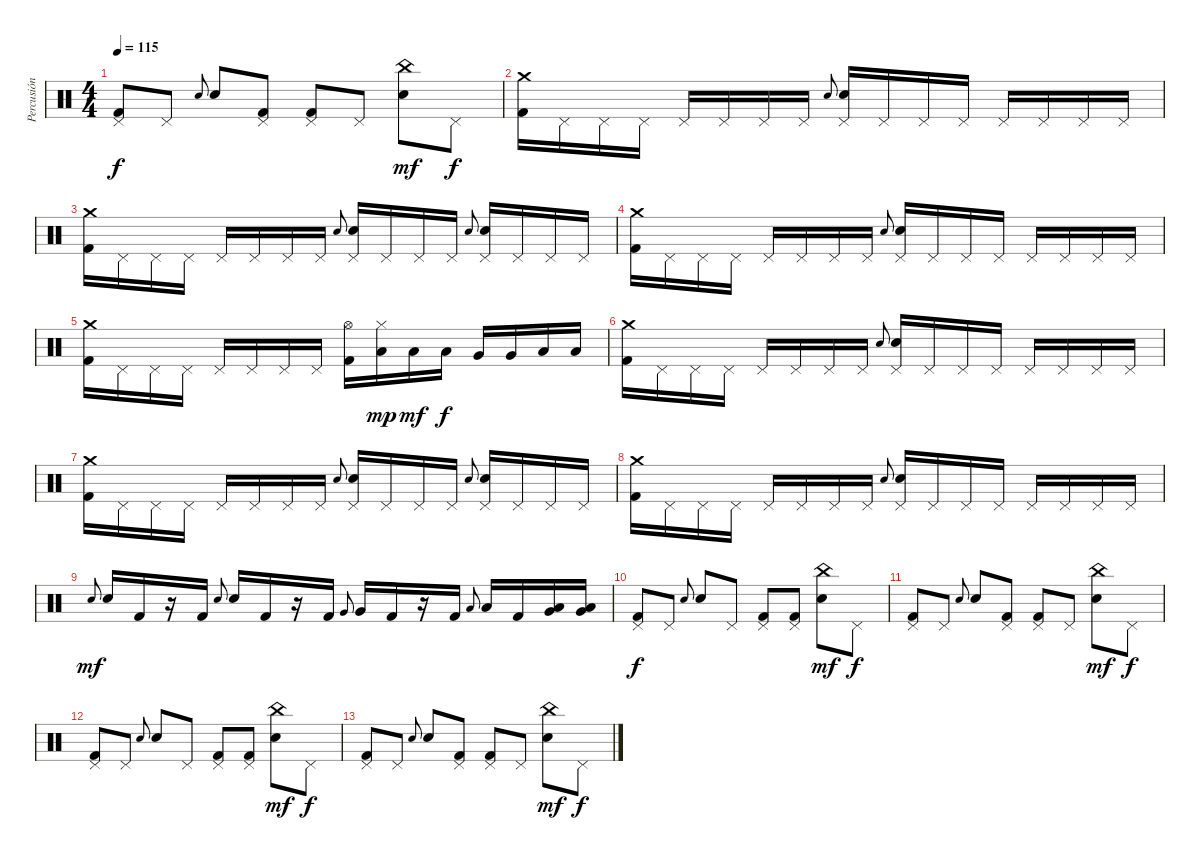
\track ("Percusión" "Percusión") {instrument percussion}
\staff {score}
\articulation defaults
\ts (4 4)
\tempo 115
\clef neutral
\ks c
("Pedal Hi-Hat (hit)" "Kick (hit) 2").8{dy f} "Pedal Hi-Hat (hit)".8 "Electric Snare (hit)".8{gr onbeat} "Electric Snare (hit)".8 ("Pedal Hi-Hat (hit)" "Kick (hit) 2").8 ("Pedal Hi-Hat (hit)" "Kick (hit) 2").8 "Pedal Hi-Hat (hit)".8 ("China (hit)" "Electric Snare (hit)").8{dy mf} "Pedal Hi-Hat (hit)".8{dy f} |
("Crash medium (hit)" "Kick (hit) 2").16 "Pedal Hi-Hat (hit)".16 "Pedal Hi-Hat (hit)".16 "Pedal Hi-Hat (hit)".16 "Pedal Hi-Hat (hit)".16 "Pedal Hi-Hat (hit)".16 "Pedal Hi-Hat (hit)".16 "Pedal Hi-Hat (hit)".16 "Electric Snare (hit)".8{gr onbeat} ("Pedal Hi-Hat (hit)" "Electric Snare (hit)").16 "Pedal Hi-Hat (hit)".16 "Pedal Hi-Hat (hit)".16 "Pedal Hi-Hat (hit)".16 "Pedal Hi-Hat (hit)".16 "Pedal Hi-Hat (hit)".16 "Pedal Hi-Hat (hit)".16 "Pedal Hi-Hat (hit)".16 |
("Crash medium (hit)" "Kick (hit) 2").16 "Pedal Hi-Hat (hit)".16 "Pedal Hi-Hat (hit)".16 "Pedal Hi-Hat (hit)".16 "Pedal Hi-Hat (hit)".16 "Pedal Hi-Hat (hit)".16 "Pedal Hi-Hat (hit)".16 "Pedal Hi-Hat (hit)".16 "Electric Snare (hit)".8{gr onbeat} ("Pedal Hi-Hat (hit)" "Electric Snare (hit)").16 "Pedal Hi-Hat (hit)".16 "Pedal Hi-Hat (hit)".16 "Pedal Hi-Hat (hit)".16 "Electric Snare (hit)".8{gr onbeat} ("Pedal Hi-Hat (hit)" "Electric Snare (hit)").16 "Pedal Hi-Hat (hit)".16 "Pedal Hi-Hat (hit)".16 "Pedal Hi-Hat (hit)".16 |
("Crash medium (hit)" "Kick (hit) 2").16 "Pedal Hi-Hat (hit)".16 "Pedal Hi-Hat (hit)".16 "Pedal Hi-Hat (hit)".16 "Pedal Hi-Hat (hit)".16 "Pedal Hi-Hat (hit)".16 "Pedal Hi-Hat (hit)".16 "Pedal Hi-Hat (hit)".16 "Electric Snare (hit)".8{gr onbeat} ("Pedal Hi-Hat (hit)" "Electric Snare (hit)").16 "Pedal Hi-Hat (hit)".16 "Pedal Hi-Hat (hit)".16 "Pedal Hi-Hat (hit)".16 "Pedal Hi-Hat (hit)".16 "Pedal Hi-Hat (hit)".16 "Pedal Hi-Hat (hit)".16 "Pedal Hi-Hat (hit)".16 |
("Crash medium (hit)" "Kick (hit) 2").16 "Pedal Hi-Hat (hit)".16 "Pedal Hi-Hat (hit)".16 "Pedal Hi-Hat (hit)".16 "Pedal Hi-Hat (hit)".16 "Pedal Hi-Hat (hit)".16 "Pedal Hi-Hat (hit)".16 "Pedal Hi-Hat (hit)".16 ("Hi-Hat (open)" "Kick (hit) 2").16 ("Hi-Hat (closed)" "Low Tom (hit)").16{dy mp} "Low Tom (hit)".16{dy mf} "Low Tom (hit)".16{dy f} "Very Low Tom (hit)".16 "Very Low Tom (hit)".16 "Low Floor Tom (hit)".16 "Low Floor Tom (hit)".16 |
("Crash medium (hit)" "Kick (hit) 2").16 "Pedal Hi-Hat (hit)".16 "Pedal Hi-Hat (hit)".16 "Pedal Hi-Hat (hit)".16 "Pedal Hi-Hat (hit)".16 "Pedal Hi-Hat (hit)".16 "Pedal Hi-Hat (hit)".16 "Pedal Hi-Hat (hit)".16 "Electric Snare (hit)".8{gr onbeat} ("Pedal Hi-Hat (hit)" "Electric Snare (hit)").16 "Pedal Hi-Hat (hit)".16 "Pedal Hi-Hat (hit)".16 "Pedal Hi-Hat (hit)".16 "Pedal Hi-Hat (hit)".16 "Pedal Hi-Hat (hit)".16 "Pedal Hi-Hat (hit)".16 "Pedal Hi-Hat (hit)".16 |
("Crash medium (hit)" "Kick (hit) 2").16 "Pedal Hi-Hat (hit)".16 "Pedal Hi-Hat (hit)".16 "Pedal Hi-Hat (hit)".16 "Pedal Hi-Hat (hit)".16 "Pedal Hi-Hat (hit)".16 "Pedal Hi-Hat (hit)".16 "Pedal Hi-Hat (hit)".16 "Electric Snare (hit)".8{gr onbeat} ("Pedal Hi-Hat (hit)" "Electric Snare (hit)").16 "Pedal Hi-Hat (hit)".16 "Pedal Hi-Hat (hit)".16 "Pedal Hi-Hat (hit)".16 "Electric Snare (hit)".8{gr onbeat} ("Pedal Hi-Hat (hit)" "Electric Snare (hit)").16 "Pedal Hi-Hat (hit)".16 "Pedal Hi-Hat (hit)".16 "Pedal Hi-Hat (hit)".16 |
("Crash medium (hit)" "Kick (hit) 2").16 "Pedal Hi-Hat (hit)".16 "Pedal Hi-Hat (hit)".16 "Pedal Hi-Hat (hit)".16 "Pedal Hi-Hat (hit)".16 "Pedal Hi-Hat (hit)".16 "Pedal Hi-Hat (hit)".16 "Pedal Hi-Hat (hit)".16 "Electric Snare (hit)".8{gr onbeat} ("Pedal Hi-Hat (hit)" "Electric Snare (hit)").16 "Pedal Hi-Hat (hit)".16 "Pedal Hi-Hat (hit)".16 "Pedal Hi-Hat (hit)".16 "Pedal Hi-Hat (hit)".16 "Pedal Hi-Hat (hit)".16 "Pedal Hi-Hat (hit)".16 "Pedal Hi-Hat (hit)".16 |
"Electric Snare (hit)".8{gr onbeat dy mf} "Electric Snare (hit)".16 "Kick (hit) 2".16 r.16 "Kick (hit) 2".16 "Electric Snare (hit)".8{gr onbeat} "Electric Snare (hit)".16 "Kick (hit) 2".16 r.16 "Kick (hit) 2".16 "Very Low Tom (hit)".8{gr onbeat} "Very Low Tom (hit)".16 "Kick (hit) 2".16 r.16 "Kick (hit) 2".16 "Low Floor Tom (hit)".8{gr onbeat} "Low Floor Tom (hit)".16 "Kick (hit) 2".16 ("Very Low Tom (hit)" "Low Floor Tom (hit)").16 ("Very Low Tom (hit)" "Low Floor Tom (hit)").16 |
("Pedal Hi-Hat (hit)" "Kick (hit) 2").8{dy f} "Pedal Hi-Hat (hit)".8 "Electric Snare (hit)".8{gr onbeat} "Electric Snare (hit)".8 "Pedal Hi-Hat (hit)".8 ("Pedal Hi-Hat (hit)" "Kick (hit) 2").8 ("Pedal Hi-Hat (hit)" "Kick (hit) 2").8 ("China (hit)" "Electric Snare (hit)").8{dy mf} "Pedal Hi-Hat (hit)".8{dy f} |
("Pedal Hi-Hat (hit)" "Kick (hit) 2").8 "Pedal Hi-Hat (hit)".8 "Electric Snare (hit)".8{gr onbeat} "Electric Snare (hit)".8 ("Pedal Hi-Hat (hit)" "Kick (hit) 2").8 ("Pedal Hi-Hat (hit)" "Kick (hit) 2").8 "Pedal Hi-Hat (hit)".8 ("China (hit)" "Electric Snare (hit)").8{dy mf} "Pedal Hi-Hat (hit)".8{dy f} |
("Pedal Hi-Hat (hit)" "Kick (hit) 2").8 "Pedal Hi-Hat (hit)".8 "Electric Snare (hit)".8{gr onbeat} "Electric Snare (hit)".8 "Pedal Hi-Hat (hit)".8 ("Pedal Hi-Hat (hit)" "Kick (hit) 2").8 ("Pedal Hi-Hat (hit)" "Kick (hit) 2").8 ("China (hit)" "Electric Snare (hit)").8{dy mf} "Pedal Hi-Hat (hit)".8{dy f} |
("Pedal Hi-Hat (hit)" "Kick (hit) 2").8 "Pedal Hi-Hat (hit)".8 "Electric Snare (hit)".8{gr onbeat} "Electric Snare (hit)".8 ("Pedal Hi-Hat (hit)" "Kick (hit) 2").8 ("Pedal Hi-Hat (hit)" "Kick (hit) 2").8 "Pedal Hi-Hat (hit)".8 ("China (hit)" "Electric Snare (hit)").8{dy mf} "Pedal Hi-Hat (hit)".8{dy f}
